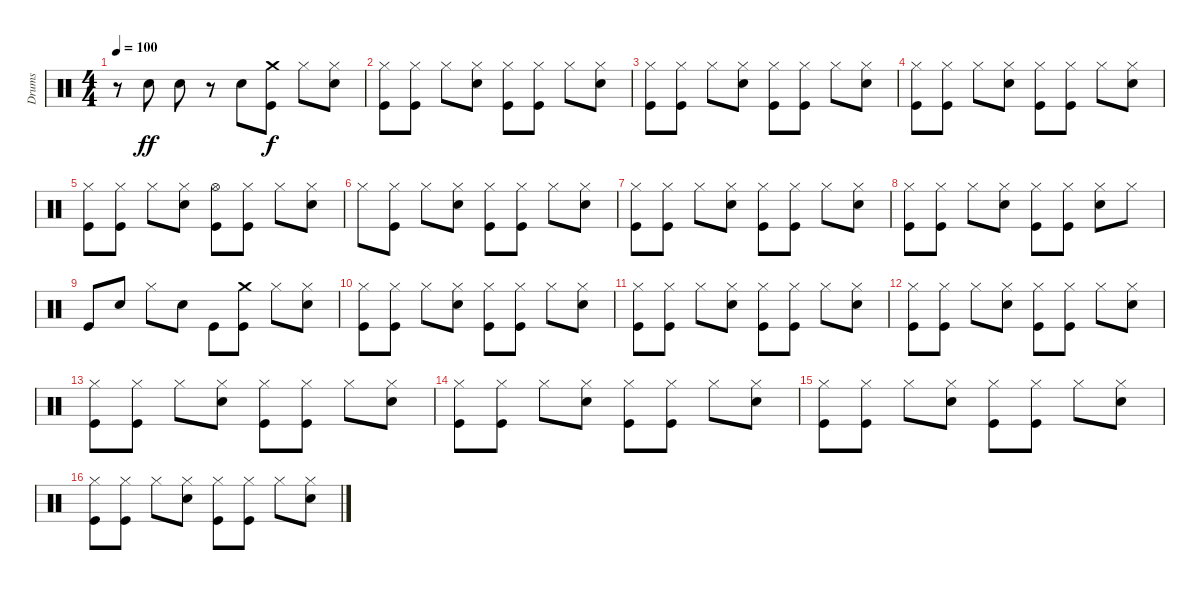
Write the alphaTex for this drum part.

\track ("Drums" "Drums") {instrument percussion}
\staff {score}
\articulation defaults
\ts (4 4)
\tempo 100
\clef neutral
\ks c
r.8{dy ff} "Snare (hit) 2".8 "Snare (hit) 2".8 r.8 "Snare (hit) 2".8 ("Crash medium (hit)" "Kick (hit)").8{dy f} "Hi-Hat (closed)".8 ("Hi-Hat (closed)" "Snare (hit) 2").8 |
("Hi-Hat (closed)" "Kick (hit)").8 ("Hi-Hat (closed)" "Kick (hit)").8 "Hi-Hat (closed)".8 ("Hi-Hat (closed)" "Snare (hit) 2").8 ("Hi-Hat (closed)" "Kick (hit)").8 ("Hi-Hat (closed)" "Kick (hit)").8 "Hi-Hat (closed)".8 ("Hi-Hat (closed)" "Snare (hit) 2").8 |
("Hi-Hat (closed)" "Kick (hit)").8 ("Hi-Hat (closed)" "Kick (hit)").8 "Hi-Hat (closed)".8 ("Hi-Hat (closed)" "Snare (hit) 2").8 ("Hi-Hat (closed)" "Kick (hit)").8 ("Hi-Hat (closed)" "Kick (hit)").8 "Hi-Hat (closed)".8 ("Hi-Hat (closed)" "Snare (hit) 2").8 |
("Hi-Hat (closed)" "Kick (hit)").8 ("Hi-Hat (closed)" "Kick (hit)").8 "Hi-Hat (closed)".8 ("Hi-Hat (closed)" "Snare (hit) 2").8 ("Hi-Hat (closed)" "Kick (hit)").8 ("Hi-Hat (closed)" "Kick (hit)").8 "Hi-Hat (closed)".8 ("Hi-Hat (closed)" "Snare (hit) 2").8 |
("Hi-Hat (closed)" "Kick (hit)").8 ("Hi-Hat (closed)" "Kick (hit)").8 "Hi-Hat (closed)".8 ("Hi-Hat (closed)" "Snare (hit) 2").8 ("Hi-Hat (open)" "Kick (hit)").8 ("Hi-Hat (closed)" "Kick (hit)").8 "Hi-Hat (closed)".8 ("Hi-Hat (closed)" "Snare (hit) 2").8 |
"Hi-Hat (closed)".8 ("Hi-Hat (closed)" "Kick (hit)").8 "Hi-Hat (closed)".8 ("Hi-Hat (closed)" "Snare (hit) 2").8 ("Hi-Hat (closed)" "Kick (hit)").8 ("Hi-Hat (closed)" "Kick (hit)").8 "Hi-Hat (closed)".8 ("Hi-Hat (closed)" "Snare (hit) 2").8 |
("Hi-Hat (closed)" "Kick (hit)").8 ("Hi-Hat (closed)" "Kick (hit)").8 "Hi-Hat (closed)".8 ("Hi-Hat (closed)" "Snare (hit) 2").8 ("Hi-Hat (closed)" "Kick (hit)").8 ("Hi-Hat (closed)" "Kick (hit)").8 "Hi-Hat (closed)".8 ("Hi-Hat (closed)" "Snare (hit) 2").8 |
("Hi-Hat (closed)" "Kick (hit)").8 ("Hi-Hat (closed)" "Kick (hit)").8 "Hi-Hat (closed)".8 ("Hi-Hat (closed)" "Snare (hit) 2").8 ("Hi-Hat (closed)" "Kick (hit)").8 ("Hi-Hat (closed)" "Kick (hit)").8 ("Hi-Hat (closed)" "Snare (hit) 2").8 "Hi-Hat (closed)".8 |
"Kick (hit)".8 "Snare (hit) 2".8 "Hi-Hat (closed)".8 "Snare (hit) 2".8 "Kick (hit)".8 ("Crash medium (hit)" "Kick (hit)").8 "Hi-Hat (closed)".8 ("Hi-Hat (closed)" "Snare (hit) 2").8 |
("Hi-Hat (closed)" "Kick (hit)").8 ("Hi-Hat (closed)" "Kick (hit)").8 "Hi-Hat (closed)".8 ("Hi-Hat (closed)" "Snare (hit) 2").8 ("Hi-Hat (closed)" "Kick (hit)").8 ("Hi-Hat (closed)" "Kick (hit)").8 "Hi-Hat (closed)".8 ("Hi-Hat (closed)" "Snare (hit) 2").8 |
("Hi-Hat (closed)" "Kick (hit)").8 ("Hi-Hat (closed)" "Kick (hit)").8 "Hi-Hat (closed)".8 ("Hi-Hat (closed)" "Snare (hit) 2").8 ("Hi-Hat (closed)" "Kick (hit)").8 ("Hi-Hat (closed)" "Kick (hit)").8 "Hi-Hat (closed)".8 ("Hi-Hat (closed)" "Snare (hit) 2").8 |
("Hi-Hat (closed)" "Kick (hit)").8 ("Hi-Hat (closed)" "Kick (hit)").8 "Hi-Hat (closed)".8 ("Hi-Hat (closed)" "Snare (hit) 2").8 ("Hi-Hat (closed)" "Kick (hit)").8 ("Hi-Hat (closed)" "Kick (hit)").8 "Hi-Hat (closed)".8 ("Hi-Hat (closed)" "Snare (hit) 2").8 |
("Hi-Hat (closed)" "Kick (hit)").8 ("Hi-Hat (closed)" "Kick (hit)").8 "Hi-Hat (closed)".8 ("Hi-Hat (closed)" "Snare (hit) 2").8 ("Hi-Hat (closed)" "Kick (hit)").8 ("Hi-Hat (closed)" "Kick (hit)").8 "Hi-Hat (closed)".8 ("Hi-Hat (closed)" "Snare (hit) 2").8 |
("Hi-Hat (closed)" "Kick (hit)").8 ("Hi-Hat (closed)" "Kick (hit)").8 "Hi-Hat (closed)".8 ("Hi-Hat (closed)" "Snare (hit) 2").8 ("Hi-Hat (closed)" "Kick (hit)").8 ("Hi-Hat (closed)" "Kick (hit)").8 "Hi-Hat (closed)".8 ("Hi-Hat (closed)" "Snare (hit) 2").8 |
("Hi-Hat (closed)" "Kick (hit)").8 ("Hi-Hat (closed)" "Kick (hit)").8 "Hi-Hat (closed)".8 ("Hi-Hat (closed)" "Snare (hit) 2").8 ("Hi-Hat (closed)" "Kick (hit)").8 ("Hi-Hat (closed)" "Kick (hit)").8 "Hi-Hat (closed)".8 ("Hi-Hat (closed)" "Snare (hit) 2").8 |
("Hi-Hat (closed)" "Kick (hit)").8 ("Hi-Hat (closed)" "Kick (hit)").8 "Hi-Hat (closed)".8 ("Hi-Hat (closed)" "Snare (hit) 2").8 ("Hi-Hat (closed)" "Kick (hit)").8 ("Hi-Hat (closed)" "Kick (hit)").8 "Hi-Hat (closed)".8 ("Hi-Hat (closed)" "Snare (hit) 2").8
